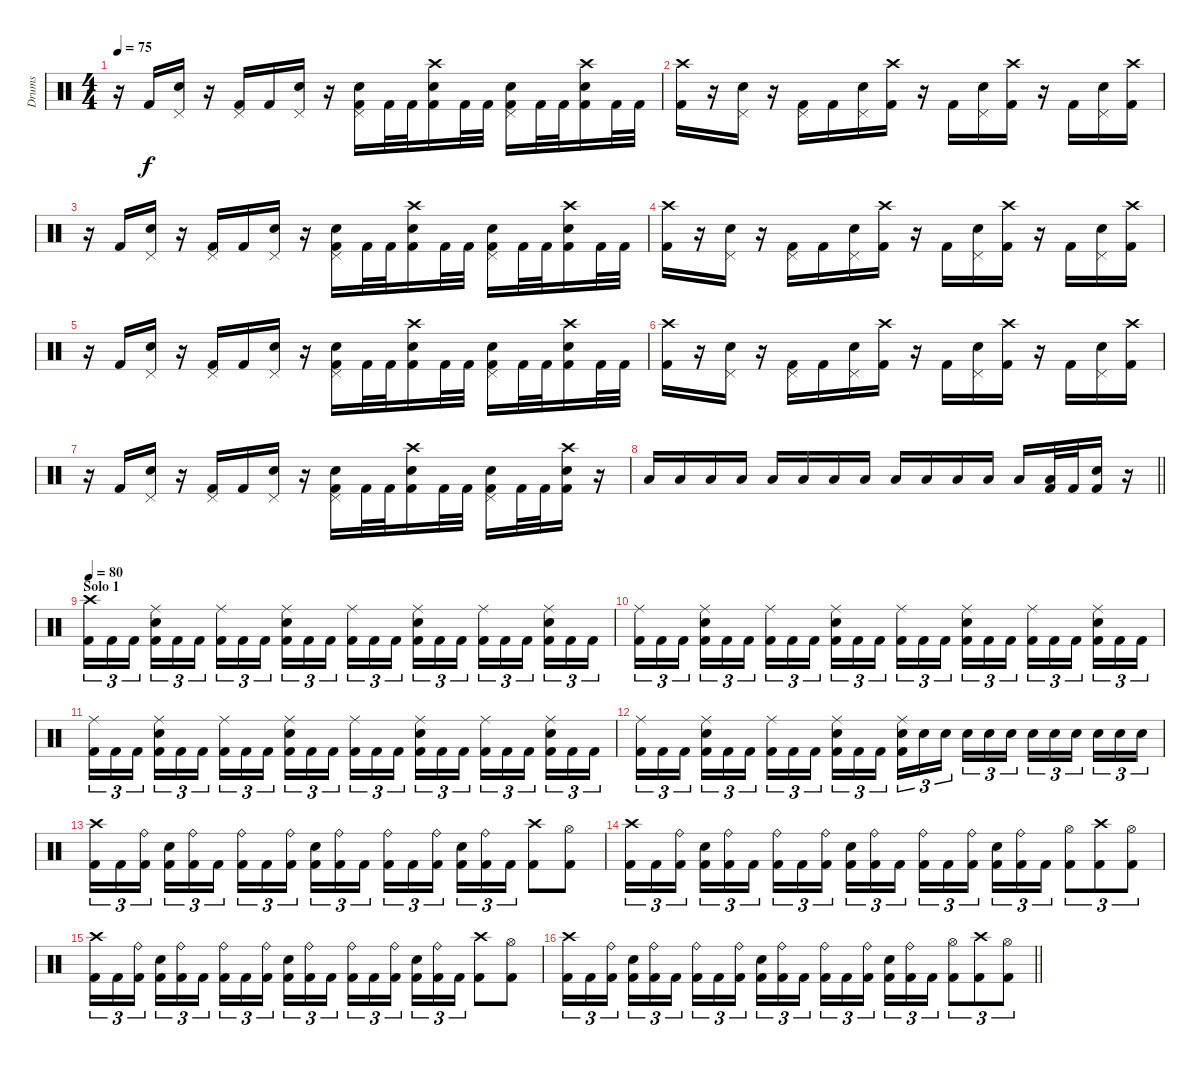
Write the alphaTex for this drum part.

\track ("Drums" "Drums") {instrument percussion}
\staff {score}
\articulation defaults
\ts (4 4)
\tempo 75
\clef neutral
\ks c
r.16{dy f} "Kick (hit) 2".16 ("Pedal Hi-Hat (hit)" "Snare (hit) 2").16 r.16 ("Pedal Hi-Hat (hit)" "Kick (hit) 2").16 "Kick (hit) 2".16 ("Pedal Hi-Hat (hit)" "Snare (hit) 2").16 r.16 ("Pedal Hi-Hat (hit)" "Snare (hit) 2" "Kick (hit) 2").16 "Kick (hit) 2".32 "Kick (hit) 2".32 ("Crash high (hit)" "Snare (hit) 2" "Kick (hit) 2").16 "Kick (hit) 2".32 "Kick (hit) 2".32 ("Pedal Hi-Hat (hit)" "Snare (hit) 2" "Kick (hit) 2").16 "Kick (hit) 2".32 "Kick (hit) 2".32 ("Crash high (hit)" "Snare (hit) 2" "Kick (hit) 2").16 "Kick (hit) 2".32 "Kick (hit) 2".32 |
("Crash high (hit)" "Kick (hit) 2").16 r.16 ("Pedal Hi-Hat (hit)" "Snare (hit) 2").16 r.16 ("Pedal Hi-Hat (hit)" "Kick (hit) 2").16 "Kick (hit) 2".16 ("Pedal Hi-Hat (hit)" "Snare (hit) 2").16 ("Crash high (hit)" "Kick (hit) 2").16 r.16 "Kick (hit) 2".16 ("Pedal Hi-Hat (hit)" "Snare (hit) 2").16 ("Crash high (hit)" "Kick (hit) 2").16 r.16 "Kick (hit) 2".16 ("Pedal Hi-Hat (hit)" "Snare (hit) 2").16 ("Crash high (hit)" "Kick (hit) 2").16 |
r.16 "Kick (hit) 2".16 ("Pedal Hi-Hat (hit)" "Snare (hit) 2").16 r.16 ("Pedal Hi-Hat (hit)" "Kick (hit) 2").16 "Kick (hit) 2".16 ("Pedal Hi-Hat (hit)" "Snare (hit) 2").16 r.16 ("Pedal Hi-Hat (hit)" "Snare (hit) 2" "Kick (hit) 2").16 "Kick (hit) 2".32 "Kick (hit) 2".32 ("Crash high (hit)" "Snare (hit) 2" "Kick (hit) 2").16 "Kick (hit) 2".32 "Kick (hit) 2".32 ("Pedal Hi-Hat (hit)" "Snare (hit) 2" "Kick (hit) 2").16 "Kick (hit) 2".32 "Kick (hit) 2".32 ("Crash high (hit)" "Snare (hit) 2" "Kick (hit) 2").16 "Kick (hit) 2".32 "Kick (hit) 2".32 |
("Crash high (hit)" "Kick (hit) 2").16 r.16 ("Pedal Hi-Hat (hit)" "Snare (hit) 2").16 r.16 ("Pedal Hi-Hat (hit)" "Kick (hit) 2").16 "Kick (hit) 2".16 ("Pedal Hi-Hat (hit)" "Snare (hit) 2").16 ("Crash high (hit)" "Kick (hit) 2").16 r.16 "Kick (hit) 2".16 ("Pedal Hi-Hat (hit)" "Snare (hit) 2").16 ("Crash high (hit)" "Kick (hit) 2").16 r.16 "Kick (hit) 2".16 ("Pedal Hi-Hat (hit)" "Snare (hit) 2").16 ("Crash high (hit)" "Kick (hit) 2").16 |
r.16 "Kick (hit) 2".16 ("Pedal Hi-Hat (hit)" "Snare (hit) 2").16 r.16 ("Pedal Hi-Hat (hit)" "Kick (hit) 2").16 "Kick (hit) 2".16 ("Pedal Hi-Hat (hit)" "Snare (hit) 2").16 r.16 ("Pedal Hi-Hat (hit)" "Snare (hit) 2" "Kick (hit) 2").16 "Kick (hit) 2".32 "Kick (hit) 2".32 ("Crash high (hit)" "Snare (hit) 2" "Kick (hit) 2").16 "Kick (hit) 2".32 "Kick (hit) 2".32 ("Pedal Hi-Hat (hit)" "Snare (hit) 2" "Kick (hit) 2").16 "Kick (hit) 2".32 "Kick (hit) 2".32 ("Crash high (hit)" "Snare (hit) 2" "Kick (hit) 2").16 "Kick (hit) 2".32 "Kick (hit) 2".32 |
("Crash high (hit)" "Kick (hit) 2").16 r.16 ("Pedal Hi-Hat (hit)" "Snare (hit) 2").16 r.16 ("Pedal Hi-Hat (hit)" "Kick (hit) 2").16 "Kick (hit) 2".16 ("Pedal Hi-Hat (hit)" "Snare (hit) 2").16 ("Crash high (hit)" "Kick (hit) 2").16 r.16 "Kick (hit) 2".16 ("Pedal Hi-Hat (hit)" "Snare (hit) 2").16 ("Crash high (hit)" "Kick (hit) 2").16 r.16 "Kick (hit) 2".16 ("Pedal Hi-Hat (hit)" "Snare (hit) 2").16 ("Crash high (hit)" "Kick (hit) 2").16 |
r.16 "Kick (hit) 2".16 ("Pedal Hi-Hat (hit)" "Snare (hit) 2").16 r.16 ("Pedal Hi-Hat (hit)" "Kick (hit) 2").16 "Kick (hit) 2".16 ("Pedal Hi-Hat (hit)" "Snare (hit) 2").16 r.16 ("Pedal Hi-Hat (hit)" "Snare (hit) 2" "Kick (hit) 2").16 "Kick (hit) 2".32 "Kick (hit) 2".32 ("Crash high (hit)" "Snare (hit) 2" "Kick (hit) 2").16 "Kick (hit) 2".32 "Kick (hit) 2".32 ("Pedal Hi-Hat (hit)" "Snare (hit) 2" "Kick (hit) 2").16 "Kick (hit) 2".32 "Kick (hit) 2".32 ("Crash high (hit)" "Snare (hit) 2" "Kick (hit) 2").16 r.16 |
\barLineRight lightlight "Low Tom (hit)".16 "Low Tom (hit)".16 "Low Tom (hit)".16 "Low Tom (hit)".16 "Low Tom (hit)".16 "Low Tom (hit)".16 "Low Tom (hit)".16 "Low Tom (hit)".16 "Low Tom (hit)".16 "Low Tom (hit)".16 "Low Tom (hit)".16 "Low Tom (hit)".16 "Low Tom (hit)".16
("Low Tom (hit)" "Kick (hit) 2").32 "Kick (hit) 2".32 ("Snare (hit) 2" "Kick (hit) 2").16 r.16 |
\section ("" "Solo 1")
\tempo 80
("Crash high (hit)" "Kick (hit) 2").16{tu (3 2)} "Kick (hit) 2".16{tu (3 2)} "Kick (hit) 2".16{tu (3 2) beam splitsecondary} ("Ride (middle)" "Snare (hit) 2" "Kick (hit) 2").16{tu (3 2)} "Kick (hit) 2".16{tu (3 2)} "Kick (hit) 2".16{tu (3 2)} ("Ride (middle)" "Kick (hit) 2").16{tu (3 2)} "Kick (hit) 2".16{tu (3 2)} "Kick (hit) 2".16{tu (3 2) beam splitsecondary} ("Ride (middle)" "Snare (hit) 2" "Kick (hit) 2").16{tu (3 2)} "Kick (hit) 2".16{tu (3 2)} "Kick (hit) 2".16{tu (3 2)} ("Ride (middle)" "Kick (hit) 2").16{tu (3 2)} "Kick (hit) 2".16{tu (3 2)} "Kick (hit) 2".16{tu (3 2) beam splitsecondary} ("Ride (middle)" "Snare (hit) 2" "Kick (hit) 2").16{tu (3 2)} "Kick (hit) 2".16{tu (3 2)} "Kick (hit) 2".16{tu (3 2)} ("Ride (middle)" "Kick (hit) 2").16{tu (3 2)} "Kick (hit) 2".16{tu (3 2)} "Kick (hit) 2".16{tu (3 2) beam splitsecondary} ("Ride (middle)" "Snare (hit) 2" "Kick (hit) 2").16{tu (3 2)} "Kick (hit) 2".16{tu (3 2)} "Kick (hit) 2".16{tu (3 2)} |
("Ride (middle)" "Kick (hit) 2").16{tu (3 2)} "Kick (hit) 2".16{tu (3 2)} "Kick (hit) 2".16{tu (3 2) beam splitsecondary} ("Ride (middle)" "Snare (hit) 2" "Kick (hit) 2").16{tu (3 2)} "Kick (hit) 2".16{tu (3 2)} "Kick (hit) 2".16{tu (3 2)} ("Ride (middle)" "Kick (hit) 2").16{tu (3 2)} "Kick (hit) 2".16{tu (3 2)} "Kick (hit) 2".16{tu (3 2) beam splitsecondary} ("Ride (middle)" "Snare (hit) 2" "Kick (hit) 2").16{tu (3 2)} "Kick (hit) 2".16{tu (3 2)} "Kick (hit) 2".16{tu (3 2)} ("Ride (middle)" "Kick (hit) 2").16{tu (3 2)} "Kick (hit) 2".16{tu (3 2)} "Kick (hit) 2".16{tu (3 2) beam splitsecondary} ("Ride (middle)" "Snare (hit) 2" "Kick (hit) 2").16{tu (3 2)} "Kick (hit) 2".16{tu (3 2)} "Kick (hit) 2".16{tu (3 2)} ("Ride (middle)" "Kick (hit) 2").16{tu (3 2)} "Kick (hit) 2".16{tu (3 2)} "Kick (hit) 2".16{tu (3 2) beam splitsecondary} ("Ride (middle)" "Snare (hit) 2" "Kick (hit) 2").16{tu (3 2)} "Kick (hit) 2".16{tu (3 2)} "Kick (hit) 2".16{tu (3 2)} |
("Ride (middle)" "Kick (hit) 2").16{tu (3 2)} "Kick (hit) 2".16{tu (3 2)} "Kick (hit) 2".16{tu (3 2) beam splitsecondary} ("Ride (middle)" "Snare (hit) 2" "Kick (hit) 2").16{tu (3 2)} "Kick (hit) 2".16{tu (3 2)} "Kick (hit) 2".16{tu (3 2)} ("Ride (middle)" "Kick (hit) 2").16{tu (3 2)} "Kick (hit) 2".16{tu (3 2)} "Kick (hit) 2".16{tu (3 2) beam splitsecondary} ("Ride (middle)" "Snare (hit) 2" "Kick (hit) 2").16{tu (3 2)} "Kick (hit) 2".16{tu (3 2)} "Kick (hit) 2".16{tu (3 2)} ("Ride (middle)" "Kick (hit) 2").16{tu (3 2)} "Kick (hit) 2".16{tu (3 2)} "Kick (hit) 2".16{tu (3 2) beam splitsecondary} ("Ride (middle)" "Snare (hit) 2" "Kick (hit) 2").16{tu (3 2)} "Kick (hit) 2".16{tu (3 2)} "Kick (hit) 2".16{tu (3 2)} ("Ride (middle)" "Kick (hit) 2").16{tu (3 2)} "Kick (hit) 2".16{tu (3 2)} "Kick (hit) 2".16{tu (3 2) beam splitsecondary} ("Ride (middle)" "Snare (hit) 2" "Kick (hit) 2").16{tu (3 2)} "Kick (hit) 2".16{tu (3 2)} "Kick (hit) 2".16{tu (3 2)} |
("Ride (middle)" "Kick (hit) 2").16{tu (3 2)} "Kick (hit) 2".16{tu (3 2)} "Kick (hit) 2".16{tu (3 2) beam splitsecondary} ("Ride (middle)" "Snare (hit) 2" "Kick (hit) 2").16{tu (3 2)} "Kick (hit) 2".16{tu (3 2)} "Kick (hit) 2".16{tu (3 2)} ("Ride (middle)" "Kick (hit) 2").16{tu (3 2)} "Kick (hit) 2".16{tu (3 2)} "Kick (hit) 2".16{tu (3 2) beam splitsecondary} ("Ride (middle)" "Snare (hit) 2" "Kick (hit) 2").16{tu (3 2)} "Kick (hit) 2".16{tu (3 2)} "Kick (hit) 2".16{tu (3 2)} ("Ride (middle)" "Snare (hit) 2" "Kick (hit) 2").16{tu (3 2)} "Snare (hit) 2".16{tu (3 2)} "Snare (hit) 2".16{tu (3 2) beam splitsecondary} "Snare (hit) 2".16{tu (3 2)} "Snare (hit) 2".16{tu (3 2)} "Snare (hit) 2".16{tu (3 2)} "Snare (hit) 2".16{tu (3 2)} "Snare (hit) 2".16{tu (3 2)} "Snare (hit) 2".16{tu (3 2) beam splitsecondary} "Snare (hit) 2".16{tu (3 2)} "Snare (hit) 2".16{tu (3 2)} "Snare (hit) 2".16{tu (3 2)} |
("Crash high (hit)" "Kick (hit) 2").16{tu (3 2)} "Kick (hit) 2".16{tu (3 2)} ("Ride (bell)" "Kick (hit) 2").16{tu (3 2) beam splitsecondary} ("Snare (hit) 2" "Kick (hit) 2").16{tu (3 2)} ("Ride (bell)" "Kick (hit) 2").16{tu (3 2)} "Kick (hit) 2".16{tu (3 2)} ("Ride (bell)" "Kick (hit) 2").16{tu (3 2)} "Kick (hit) 2".16{tu (3 2)} ("Ride (bell)" "Kick (hit) 2").16{tu (3 2) beam splitsecondary} ("Snare (hit) 2" "Kick (hit) 2").16{tu (3 2)} ("Ride (bell)" "Kick (hit) 2").16{tu (3 2)} "Kick (hit) 2".16{tu (3 2)} ("Ride (bell)" "Kick (hit) 2").16{tu (3 2)} "Kick (hit) 2".16{tu (3 2)} ("Ride (bell)" "Kick (hit) 2").16{tu (3 2) beam splitsecondary} ("Snare (hit) 2" "Kick (hit) 2").16{tu (3 2)} ("Ride (bell)" "Kick (hit) 2").16{tu (3 2)} "Kick (hit) 2".16{tu (3 2)} ("Crash high (hit)" "Kick (hit) 2").8 ("Hi-Hat (open)" "Kick (hit) 2").8 |
("Crash high (hit)" "Kick (hit) 2").16{tu (3 2)} "Kick (hit) 2".16{tu (3 2)} ("Ride (bell)" "Kick (hit) 2").16{tu (3 2) beam splitsecondary} ("Snare (hit) 2" "Kick (hit) 2").16{tu (3 2)} ("Ride (bell)" "Kick (hit) 2").16{tu (3 2)} "Kick (hit) 2".16{tu (3 2)} ("Ride (bell)" "Kick (hit) 2").16{tu (3 2)} "Kick (hit) 2".16{tu (3 2)} ("Ride (bell)" "Kick (hit) 2").16{tu (3 2) beam splitsecondary} ("Snare (hit) 2" "Kick (hit) 2").16{tu (3 2)} ("Ride (bell)" "Kick (hit) 2").16{tu (3 2)} "Kick (hit) 2".16{tu (3 2)} ("Ride (bell)" "Kick (hit) 2").16{tu (3 2)} "Kick (hit) 2".16{tu (3 2)} ("Ride (bell)" "Kick (hit) 2").16{tu (3 2) beam splitsecondary} ("Snare (hit) 2" "Kick (hit) 2").16{tu (3 2)} ("Ride (bell)" "Kick (hit) 2").16{tu (3 2)} "Kick (hit) 2".16{tu (3 2)} ("Hi-Hat (open)" "Kick (hit) 2").8{tu (3 2)} ("Crash high (hit)" "Kick (hit) 2").8{tu (3 2)} ("Hi-Hat (open)" "Kick (hit) 2").8{tu (3 2)} |
("Crash high (hit)" "Kick (hit) 2").16{tu (3 2)} "Kick (hit) 2".16{tu (3 2)} ("Ride (bell)" "Kick (hit) 2").16{tu (3 2) beam splitsecondary} ("Snare (hit) 2" "Kick (hit) 2").16{tu (3 2)} ("Ride (bell)" "Kick (hit) 2").16{tu (3 2)} "Kick (hit) 2".16{tu (3 2)} ("Ride (bell)" "Kick (hit) 2").16{tu (3 2)} "Kick (hit) 2".16{tu (3 2)} ("Ride (bell)" "Kick (hit) 2").16{tu (3 2) beam splitsecondary} ("Snare (hit) 2" "Kick (hit) 2").16{tu (3 2)} ("Ride (bell)" "Kick (hit) 2").16{tu (3 2)} "Kick (hit) 2".16{tu (3 2)} ("Ride (bell)" "Kick (hit) 2").16{tu (3 2)} "Kick (hit) 2".16{tu (3 2)} ("Ride (bell)" "Kick (hit) 2").16{tu (3 2) beam splitsecondary} ("Snare (hit) 2" "Kick (hit) 2").16{tu (3 2)} ("Ride (bell)" "Kick (hit) 2").16{tu (3 2)} "Kick (hit) 2".16{tu (3 2)} ("Crash high (hit)" "Kick (hit) 2").8 ("Hi-Hat (open)" "Kick (hit) 2").8 |
\barLineRight lightlight
("Crash high (hit)" "Kick (hit) 2").16{tu (3 2)} "Kick (hit) 2".16{tu (3 2)} ("Ride (bell)" "Kick (hit) 2").16{tu (3 2) beam splitsecondary} ("Snare (hit) 2" "Kick (hit) 2").16{tu (3 2)} ("Ride (bell)" "Kick (hit) 2").16{tu (3 2)} "Kick (hit) 2".16{tu (3 2)} ("Ride (bell)" "Kick (hit) 2").16{tu (3 2)} "Kick (hit) 2".16{tu (3 2)} ("Ride (bell)" "Kick (hit) 2").16{tu (3 2) beam splitsecondary} ("Snare (hit) 2" "Kick (hit) 2").16{tu (3 2)} ("Ride (bell)" "Kick (hit) 2").16{tu (3 2)} "Kick (hit) 2".16{tu (3 2)} ("Ride (bell)" "Kick (hit) 2").16{tu (3 2)} "Kick (hit) 2".16{tu (3 2)} ("Ride (bell)" "Kick (hit) 2").16{tu (3 2) beam splitsecondary} ("Snare (hit) 2" "Kick (hit) 2").16{tu (3 2)} ("Ride (bell)" "Kick (hit) 2").16{tu (3 2)} "Kick (hit) 2".16{tu (3 2)} ("Hi-Hat (open)" "Kick (hit) 2").8{tu (3 2)} ("Crash high (hit)" "Kick (hit) 2").8{tu (3 2)} ("Hi-Hat (open)" "Kick (hit) 2").8{tu (3 2)}
